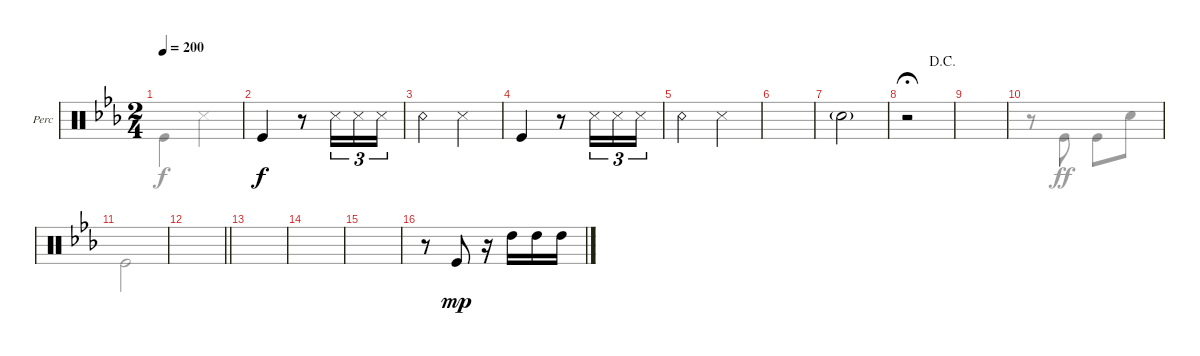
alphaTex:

\defaultSystemsLayout 4
\bracketExtendMode groupsimilarinstruments
\firstSystemTrackNameOrientation horizontal
\otherSystemsTrackNameOrientation horizontal
\track ("Body Percussion" "Perc") {instrument percussion}
\staff {score}
\articulation defaults
\voice
\ts (2 4)
\scale
0.22446
\tempo 200
\accidentals auto
\clef neutral
\ottava regular
\simile none
\ks cminor
|
\scale
0.30948 "Kick (hit)".4 r.8 "Snare (side stick) 3".16{tu (3 2)} "Snare (side stick) 3".16{tu (3 2)} "Snare (side stick) 3".16{tu (3 2)} |
\scale
0.233161 "Snare (rim shot)".4 "Snare (side stick) 3".4 |
\scale
0.244219 "Kick (hit)".4 r.8 "Snare (side stick) 3".16{tu (3 2)} "Snare (side stick) 3".16{tu (3 2)} "Snare (side stick) 3".16{tu (3 2)} |
\scale
0.213135 "Snare (rim shot)".4 "Snare (side stick) 3".4 |
|
"Snare (hit) 2"{g}.2 |
\jump dacapo
r.2{fermata (medium 0.5)} |
\tempo (150 hide)
|
\scale
0.383232
\tempo (120 0.25 hide)
|
\scale
0.218854 |
\scale
0.160207
\barLineRight lightlight
|
\scale
0.237726
\tempo (200 hide)
|
|
|
r.8 "Kick (hit)".8{dy mp} r.16 "High Tom (hit)".16 "High Tom (hit)".16 "High Tom (hit)".16
\voice
\clef neutral
\ottava regular
\simile none
\ks cminor "Kick (hit)".4{dy f} "Snare (side stick) 3".4
|
|
|
|
|
|
|
|
|
r.8 "Kick (hit)".8{dy ff} "Kick (hit)".8 "Snare (hit) 2".8 |
"Kick (hit)".2 |
\barLineRight lightlight
|
|
|
|
